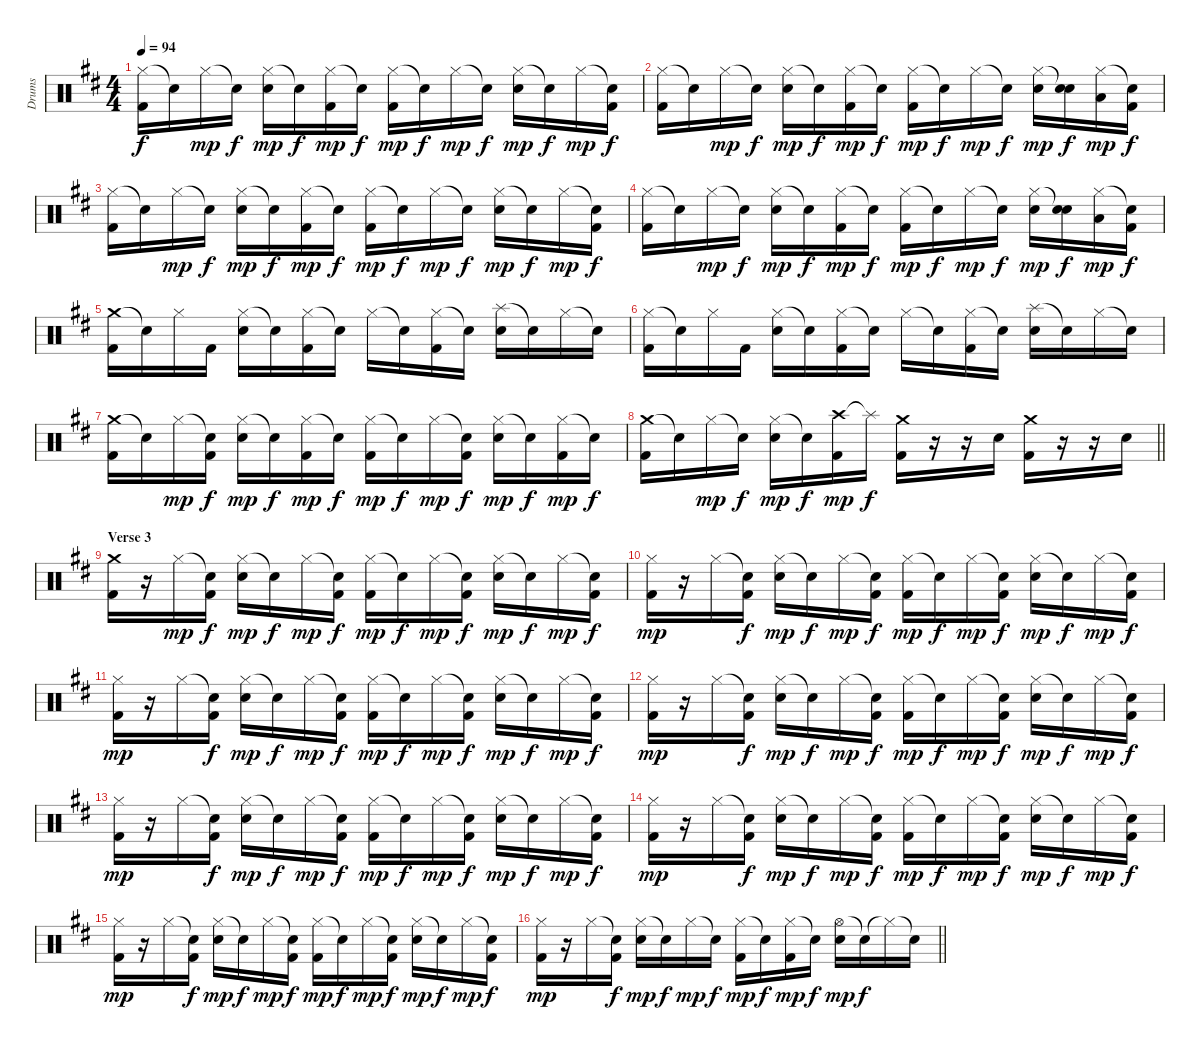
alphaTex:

\track ("Drums" "Drums") {instrument percussion}
\staff {score}
\articulation defaults
\ts (4 4)
\tempo 94
\clef neutral
\ks d
("Hi-Hat (closed)" "Kick (hit) 2").16{dy f} "Snare (hit)"{t}.16 "Hi-Hat (closed)".16{dy mp} "Snare (hit)"{t}.16{dy f} ("Hi-Hat (closed)" "Snare (hit) 2").16{dy mp} "Snare (hit)"{t}.16{dy f} ("Hi-Hat (closed)" "Kick (hit) 2").16{dy mp} "Snare (hit)"{t}.16{dy f} ("Hi-Hat (closed)" "Kick (hit) 2").16{dy mp} "Snare (hit)"{t}.16{dy f} "Hi-Hat (closed)".16{dy mp} "Snare (hit)"{t}.16{dy f} ("Hi-Hat (closed)" "Snare (hit) 2").16{dy mp} "Snare (hit)"{t}.16{dy f} "Hi-Hat (closed)".16{dy mp} ("Snare (hit)"{t} "Kick (hit) 2").16{dy f} |
("Hi-Hat (closed)" "Kick (hit) 2").16 "Snare (hit)"{t}.16 "Hi-Hat (closed)".16{dy mp} "Snare (hit)"{t}.16{dy f} ("Hi-Hat (closed)" "Snare (hit) 2").16{dy mp} "Snare (hit)"{t}.16{dy f} ("Hi-Hat (closed)" "Kick (hit) 2").16{dy mp} "Snare (hit)"{t}.16{dy f} ("Hi-Hat (closed)" "Kick (hit) 2").16{dy mp} "Snare (hit)"{t}.16{dy f} "Hi-Hat (closed)".16{dy mp} "Snare (hit)"{t}.16{dy f} ("Hi-Hat (closed)" "Snare (hit) 2").16{dy mp} ("Snare (hit)"{t} "Snare (hit) 2").16{dy f} ("Hi-Hat (closed)" "Low Floor Tom (hit)").16{dy mp} ("Snare (hit)"{t} "Kick (hit) 2").16{dy f} |
("Hi-Hat (closed)" "Kick (hit) 2").16 "Snare (hit)"{t}.16 "Hi-Hat (closed)".16{dy mp} "Snare (hit)"{t}.16{dy f} ("Hi-Hat (closed)" "Snare (hit) 2").16{dy mp} "Snare (hit)"{t}.16{dy f} ("Hi-Hat (closed)" "Kick (hit) 2").16{dy mp} "Snare (hit)"{t}.16{dy f} ("Hi-Hat (closed)" "Kick (hit) 2").16{dy mp} "Snare (hit)"{t}.16{dy f} "Hi-Hat (closed)".16{dy mp} "Snare (hit)"{t}.16{dy f} ("Hi-Hat (closed)" "Snare (hit) 2").16{dy mp} "Snare (hit)"{t}.16{dy f} "Hi-Hat (closed)".16{dy mp} ("Snare (hit)"{t} "Kick (hit) 2").16{dy f} |
("Hi-Hat (closed)" "Kick (hit) 2").16 "Snare (hit)"{t}.16 "Hi-Hat (closed)".16{dy mp} "Snare (hit)"{t}.16{dy f} ("Hi-Hat (closed)" "Snare (hit) 2").16{dy mp} "Snare (hit)"{t}.16{dy f} ("Hi-Hat (closed)" "Kick (hit) 2").16{dy mp} "Snare (hit)"{t}.16{dy f} ("Hi-Hat (closed)" "Kick (hit) 2").16{dy mp} "Snare (hit)"{t}.16{dy f} "Hi-Hat (closed)".16{dy mp} "Snare (hit)"{t}.16{dy f} ("Hi-Hat (closed)" "Snare (hit) 2").16{dy mp} ("Snare (hit)"{t} "Snare (hit) 2").16{dy f} ("Hi-Hat (closed)" "Low Floor Tom (hit)").16{dy mp} ("Snare (hit)"{t} "Kick (hit) 2").16{dy f} |
("Crash medium (hit)" "Kick (hit) 2").16 "Snare (hit)"{t}.16 "Hi-Hat (closed)".16 "Kick (hit) 2".16 ("Hi-Hat (closed)" "Snare (hit) 2").16 "Snare (hit)"{t}.16 ("Hi-Hat (closed)" "Kick (hit) 2").16 "Snare (hit)"{t}.16 "Hi-Hat (closed)".16 "Snare (hit)"{t}.16 ("Hi-Hat (closed)" "Kick (hit) 2").16 "Snare (hit)"{t}.16 ("Splash (hit)" "Snare (hit) 2").16 "Snare (hit)"{t}.16 "Hi-Hat (closed)".16 "Snare (hit)"{t}.16 |
("Hi-Hat (closed)" "Kick (hit) 2").16 "Snare (hit)"{t}.16 "Hi-Hat (closed)".16 "Kick (hit) 2".16 ("Hi-Hat (closed)" "Snare (hit) 2").16 "Snare (hit)"{t}.16 ("Hi-Hat (closed)" "Kick (hit) 2").16 "Snare (hit)"{t}.16 "Hi-Hat (closed)".16 "Snare (hit)"{t}.16 ("Hi-Hat (closed)" "Kick (hit) 2").16 "Snare (hit)"{t}.16 ("Splash (hit)" "Snare (hit) 2").16 "Snare (hit)"{t}.16 "Hi-Hat (closed)".16 "Snare (hit)"{t}.16 |
("Crash medium (hit)" "Kick (hit) 2").16 "Snare (hit)"{t}.16 "Hi-Hat (closed)".16{dy mp} ("Snare (hit)"{t} "Kick (hit) 2").16{dy f} ("Hi-Hat (closed)" "Snare (hit) 2").16{dy mp} "Snare (hit)"{t}.16{dy f} ("Hi-Hat (closed)" "Kick (hit) 2").16{dy mp} "Snare (hit)"{t}.16{dy f} ("Hi-Hat (closed)" "Kick (hit) 2").16{dy mp} "Snare (hit)"{t}.16{dy f} "Hi-Hat (closed)".16{dy mp} ("Snare (hit)"{t} "Kick (hit) 2").16{dy f} ("Hi-Hat (closed)" "Snare (hit) 2").16{dy mp} "Snare (hit)"{t}.16{dy f} ("Hi-Hat (closed)" "Kick (hit) 2").16{dy mp} "Snare (hit)"{t}.16{dy f} |
\barLineRight lightlight
("Crash medium (hit)" "Kick (hit) 2").16 "Snare (hit)"{t}.16 "Hi-Hat (closed)".16{dy mp} "Snare (hit)"{t}.16{dy f} ("Hi-Hat (closed)" "Snare (hit) 2").16{dy mp} "Snare (hit)"{t}.16{dy f} ("Crash high (hit)" "Kick (hit) 2").16{dy mp} "Splash (hit)"{t}.16{dy f} ("Crash medium (hit)" "Kick (hit) 2").16 r.16 r.16 "Snare (hit) 2".16 ("Crash medium (hit)" "Kick (hit) 2").16 r.16 r.16 "Snare (hit) 2".16 |
\section ("" "Verse 3")
("Crash medium (hit)" "Kick (hit) 2").16 r.16 "Hi-Hat (closed)".16{dy mp} ("Snare (hit)"{t} "Kick (hit) 2").16{dy f} ("Hi-Hat (closed)" "Snare (hit) 2").16{dy mp} "Snare (hit)"{t}.16{dy f} "Hi-Hat (closed)".16{dy mp} ("Snare (hit)"{t} "Kick (hit) 2").16{dy f} ("Hi-Hat (closed)" "Kick (hit) 2").16{dy mp} "Snare (hit)"{t}.16{dy f} "Hi-Hat (closed)".16{dy mp} ("Snare (hit)"{t} "Kick (hit) 2").16{dy f} ("Hi-Hat (closed)" "Snare (hit) 2").16{dy mp} "Snare (hit)"{t}.16{dy f} "Hi-Hat (closed)".16{dy mp} ("Snare (hit)"{t} "Kick (hit) 2").16{dy f} |
("Hi-Hat (closed)" "Kick (hit) 2").16{dy mp} r.16 "Hi-Hat (closed)".16 ("Snare (hit)"{t} "Kick (hit) 2").16{dy f} ("Hi-Hat (closed)" "Snare (hit) 2").16{dy mp} "Snare (hit)"{t}.16{dy f} "Hi-Hat (closed)".16{dy mp} ("Snare (hit)"{t} "Kick (hit) 2").16{dy f} ("Hi-Hat (closed)" "Kick (hit) 2").16{dy mp} "Snare (hit)"{t}.16{dy f} "Hi-Hat (closed)".16{dy mp} ("Snare (hit)"{t} "Kick (hit) 2").16{dy f} ("Hi-Hat (closed)" "Snare (hit) 2").16{dy mp} "Snare (hit)"{t}.16{dy f} "Hi-Hat (closed)".16{dy mp} ("Snare (hit)"{t} "Kick (hit) 2").16{dy f} |
("Hi-Hat (closed)" "Kick (hit) 2").16{dy mp} r.16 "Hi-Hat (closed)".16 ("Snare (hit)"{t} "Kick (hit) 2").16{dy f} ("Hi-Hat (closed)" "Snare (hit) 2").16{dy mp} "Snare (hit)"{t}.16{dy f} "Hi-Hat (closed)".16{dy mp} ("Snare (hit)"{t} "Kick (hit) 2").16{dy f} ("Hi-Hat (closed)" "Kick (hit) 2").16{dy mp} "Snare (hit)"{t}.16{dy f} "Hi-Hat (closed)".16{dy mp} ("Snare (hit)"{t} "Kick (hit) 2").16{dy f} ("Hi-Hat (closed)" "Snare (hit) 2").16{dy mp} "Snare (hit)"{t}.16{dy f} "Hi-Hat (closed)".16{dy mp} ("Snare (hit)"{t} "Kick (hit) 2").16{dy f} |
("Hi-Hat (closed)" "Kick (hit) 2").16{dy mp} r.16 "Hi-Hat (closed)".16 ("Snare (hit)"{t} "Kick (hit) 2").16{dy f} ("Hi-Hat (closed)" "Snare (hit) 2").16{dy mp} "Snare (hit)"{t}.16{dy f} "Hi-Hat (closed)".16{dy mp} ("Snare (hit)"{t} "Kick (hit) 2").16{dy f} ("Hi-Hat (closed)" "Kick (hit) 2").16{dy mp} "Snare (hit)"{t}.16{dy f} "Hi-Hat (closed)".16{dy mp} ("Snare (hit)"{t} "Kick (hit) 2").16{dy f} ("Hi-Hat (closed)" "Snare (hit) 2").16{dy mp} "Snare (hit)"{t}.16{dy f} "Hi-Hat (closed)".16{dy mp} ("Snare (hit)"{t} "Kick (hit) 2").16{dy f} |
("Hi-Hat (closed)" "Kick (hit) 2").16{dy mp} r.16 "Hi-Hat (closed)".16 ("Snare (hit)"{t} "Kick (hit) 2").16{dy f} ("Hi-Hat (closed)" "Snare (hit) 2").16{dy mp} "Snare (hit)"{t}.16{dy f} "Hi-Hat (closed)".16{dy mp} ("Snare (hit)"{t} "Kick (hit) 2").16{dy f} ("Hi-Hat (closed)" "Kick (hit) 2").16{dy mp} "Snare (hit)"{t}.16{dy f} "Hi-Hat (closed)".16{dy mp} ("Snare (hit)"{t} "Kick (hit) 2").16{dy f} ("Hi-Hat (closed)" "Snare (hit) 2").16{dy mp} "Snare (hit)"{t}.16{dy f} "Hi-Hat (closed)".16{dy mp} ("Snare (hit)"{t} "Kick (hit) 2").16{dy f} |
("Hi-Hat (closed)" "Kick (hit) 2").16{dy mp} r.16 "Hi-Hat (closed)".16 ("Snare (hit)"{t} "Kick (hit) 2").16{dy f} ("Hi-Hat (closed)" "Snare (hit) 2").16{dy mp} "Snare (hit)"{t}.16{dy f} "Hi-Hat (closed)".16{dy mp} ("Snare (hit)"{t} "Kick (hit) 2").16{dy f} ("Hi-Hat (closed)" "Kick (hit) 2").16{dy mp} "Snare (hit)"{t}.16{dy f} "Hi-Hat (closed)".16{dy mp} ("Snare (hit)"{t} "Kick (hit) 2").16{dy f} ("Hi-Hat (closed)" "Snare (hit) 2").16{dy mp} "Snare (hit)"{t}.16{dy f} "Hi-Hat (closed)".16{dy mp} ("Snare (hit)"{t} "Kick (hit) 2").16{dy f} |
("Hi-Hat (closed)" "Kick (hit) 2").16{dy mp} r.16 "Hi-Hat (closed)".16 ("Snare (hit)"{t} "Kick (hit) 2").16{dy f} ("Hi-Hat (closed)" "Snare (hit) 2").16{dy mp} "Snare (hit)"{t}.16{dy f} "Hi-Hat (closed)".16{dy mp} ("Snare (hit)"{t} "Kick (hit) 2").16{dy f} ("Hi-Hat (closed)" "Kick (hit) 2").16{dy mp} "Snare (hit)"{t}.16{dy f} "Hi-Hat (closed)".16{dy mp} ("Snare (hit)"{t} "Kick (hit) 2").16{dy f} ("Hi-Hat (closed)" "Snare (hit) 2").16{dy mp} "Snare (hit)"{t}.16{dy f} "Hi-Hat (closed)".16{dy mp} ("Snare (hit)"{t} "Kick (hit) 2").16{dy f} |
\barLineRight lightlight
("Hi-Hat (closed)" "Kick (hit) 2").16{dy mp} r.16 "Hi-Hat (closed)".16 ("Snare (hit)"{t} "Kick (hit) 2").16{dy f} ("Hi-Hat (closed)" "Snare (hit) 2").16{dy mp} "Snare (hit)"{t}.16{dy f} "Hi-Hat (closed)".16{dy mp} "Snare (hit)"{t}.16{dy f} ("Hi-Hat (closed)" "Kick (hit) 2").16{dy mp} "Snare (hit)"{t}.16{dy f} ("Hi-Hat (closed)" "Kick (hit) 2").16{dy mp} "Snare (hit)"{t}.16{dy f} ("Hi-Hat (open)" "Snare (hit) 2").16{dy mp} "Snare (hit)"{t}.16{dy f} "Hi-Hat (closed)"{t}.16 "Snare (hit)"{t}.16
